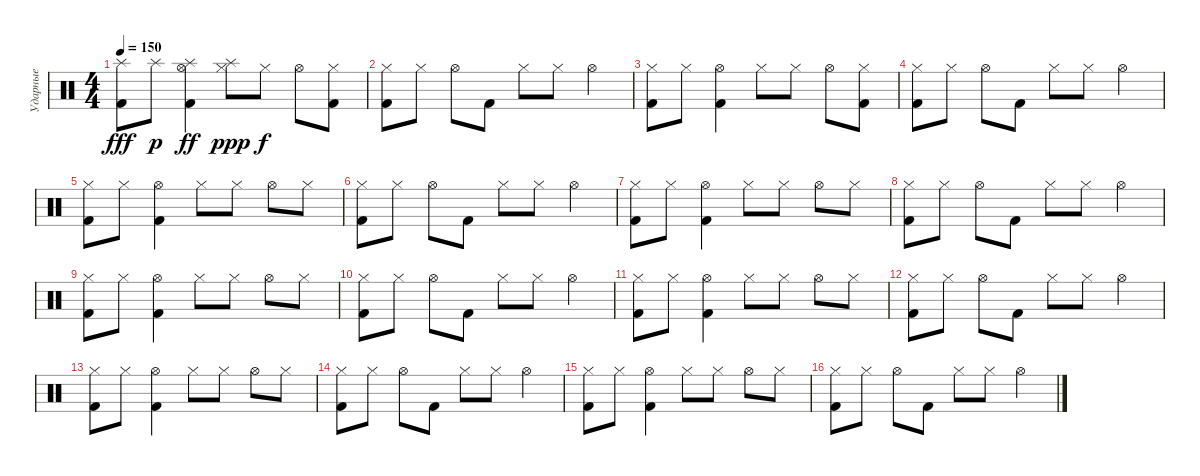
\track ("Ударные" "Ударные") {instrument percussion}
\staff {score}
\articulation defaults
\ts (4 4)
\tempo 150
\clef neutral
\ks c
("Splash (hit)" "Kick (hit) 2").8{dy fff} "Splash (hit)".8{dy p} ("Hi-Hat (open)" "Splash (hit)" "Kick (hit) 2").4{dy ff} ("Hi-Hat (closed)" "Splash (hit)").8{dy ppp} "Hi-Hat (closed)".8{dy f} "Hi-Hat (open)".8 ("Hi-Hat (closed)" "Kick (hit) 2").8 |
("Hi-Hat (closed)" "Kick (hit) 2").8 "Hi-Hat (closed)".8 "Hi-Hat (open)".8 "Kick (hit) 2".8 "Hi-Hat (closed)".8 "Hi-Hat (closed)".8 "Hi-Hat (open)".4 |
("Hi-Hat (closed)" "Kick (hit) 2").8 "Hi-Hat (closed)".8 ("Hi-Hat (open)" "Kick (hit) 2").4 "Hi-Hat (closed)".8 "Hi-Hat (closed)".8 "Hi-Hat (open)".8 ("Hi-Hat (closed)" "Kick (hit) 2").8 |
("Hi-Hat (closed)" "Kick (hit) 2").8 "Hi-Hat (closed)".8 "Hi-Hat (open)".8 "Kick (hit) 2".8 "Hi-Hat (closed)".8 "Hi-Hat (closed)".8 "Hi-Hat (open)".4 |
("Hi-Hat (closed)" "Kick (hit) 2").8 "Hi-Hat (closed)".8 ("Hi-Hat (open)" "Kick (hit) 2").4 "Hi-Hat (closed)".8 "Hi-Hat (closed)".8 "Hi-Hat (open)".8 "Hi-Hat (closed)".8 |
("Hi-Hat (closed)" "Kick (hit) 2").8 "Hi-Hat (closed)".8 "Hi-Hat (open)".8 "Kick (hit) 2".8 "Hi-Hat (closed)".8 "Hi-Hat (closed)".8 "Hi-Hat (open)".4 |
("Hi-Hat (closed)" "Kick (hit) 2").8 "Hi-Hat (closed)".8 ("Hi-Hat (open)" "Kick (hit) 2").4 "Hi-Hat (closed)".8 "Hi-Hat (closed)".8 "Hi-Hat (open)".8 "Hi-Hat (closed)".8 |
("Hi-Hat (closed)" "Kick (hit) 2").8 "Hi-Hat (closed)".8 "Hi-Hat (open)".8 "Kick (hit) 2".8 "Hi-Hat (closed)".8 "Hi-Hat (closed)".8 "Hi-Hat (open)".4 |
("Hi-Hat (closed)" "Kick (hit) 2").8 "Hi-Hat (closed)".8 ("Hi-Hat (open)" "Kick (hit) 2").4 "Hi-Hat (closed)".8 "Hi-Hat (closed)".8 "Hi-Hat (open)".8 "Hi-Hat (closed)".8 |
("Hi-Hat (closed)" "Kick (hit) 2").8 "Hi-Hat (closed)".8 "Hi-Hat (open)".8 "Kick (hit) 2".8 "Hi-Hat (closed)".8 "Hi-Hat (closed)".8 "Hi-Hat (open)".4 |
("Hi-Hat (closed)" "Kick (hit) 2").8 "Hi-Hat (closed)".8 ("Hi-Hat (open)" "Kick (hit) 2").4 "Hi-Hat (closed)".8 "Hi-Hat (closed)".8 "Hi-Hat (open)".8 "Hi-Hat (closed)".8 |
("Hi-Hat (closed)" "Kick (hit) 2").8 "Hi-Hat (closed)".8 "Hi-Hat (open)".8 "Kick (hit) 2".8 "Hi-Hat (closed)".8 "Hi-Hat (closed)".8 "Hi-Hat (open)".4 |
("Hi-Hat (closed)" "Kick (hit) 2").8 "Hi-Hat (closed)".8 ("Hi-Hat (open)" "Kick (hit) 2").4 "Hi-Hat (closed)".8 "Hi-Hat (closed)".8 "Hi-Hat (open)".8 "Hi-Hat (closed)".8 |
("Hi-Hat (closed)" "Kick (hit) 2").8 "Hi-Hat (closed)".8 "Hi-Hat (open)".8 "Kick (hit) 2".8 "Hi-Hat (closed)".8 "Hi-Hat (closed)".8 "Hi-Hat (open)".4 |
("Hi-Hat (closed)" "Kick (hit) 2").8 "Hi-Hat (closed)".8 ("Hi-Hat (open)" "Kick (hit) 2").4 "Hi-Hat (closed)".8 "Hi-Hat (closed)".8 "Hi-Hat (open)".8 "Hi-Hat (closed)".8 |
("Hi-Hat (closed)" "Kick (hit) 2").8 "Hi-Hat (closed)".8 "Hi-Hat (open)".8 "Kick (hit) 2".8 "Hi-Hat (closed)".8 "Hi-Hat (closed)".8 "Hi-Hat (open)".4
